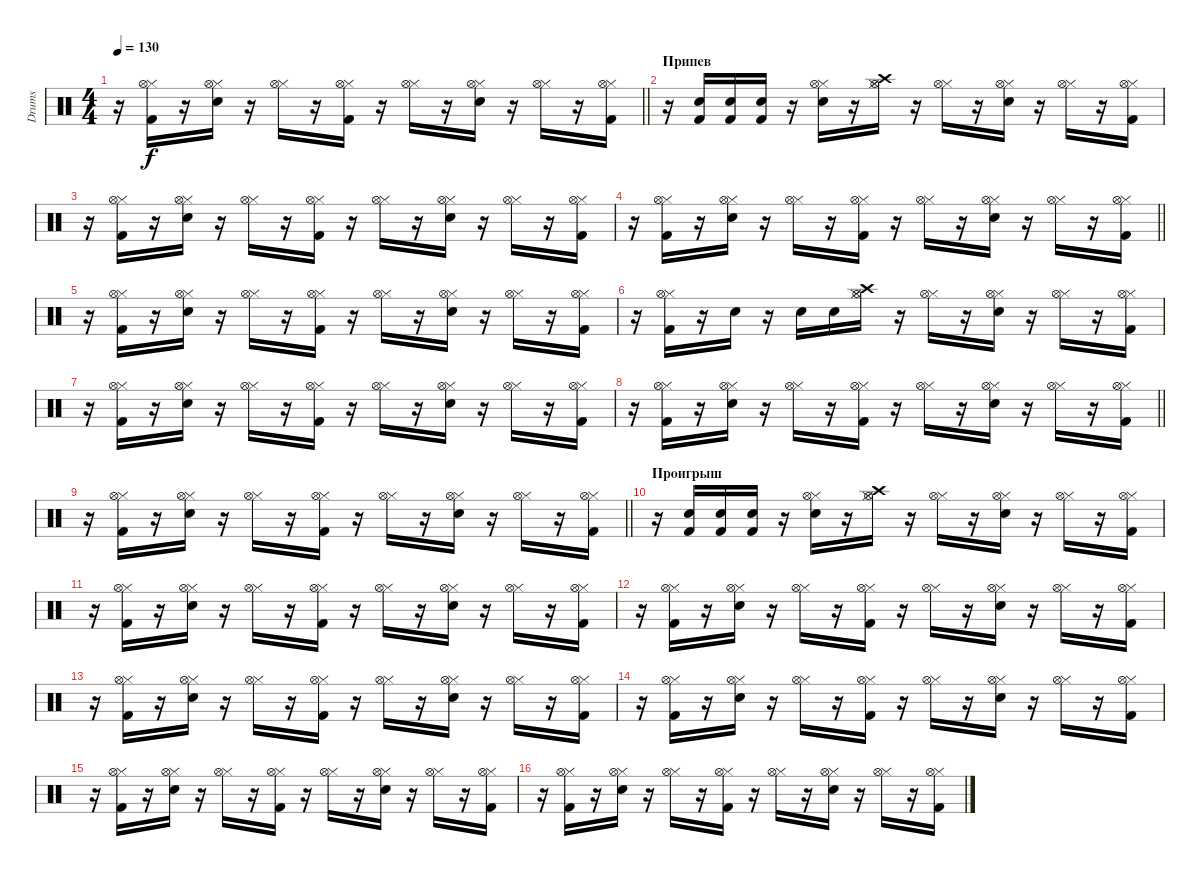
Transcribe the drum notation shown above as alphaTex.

\track ("Drums" "Drums") {instrument percussion}
\staff {score}
\articulation defaults
\ts (4 4)
\tempo 130
\clef neutral
\barLineRight lightlight
\ks c
r.16{dy f} ("Kick (hit) 2" "Hi-Hat (closed)" "Hi-Hat (open)").16 r.16 ("Snare (hit) 2" "Hi-Hat (closed)" "Hi-Hat (open)").16 r.16 ("Hi-Hat (closed)" "Hi-Hat (open)").16 r.16 ("Kick (hit) 2" "Hi-Hat (closed)" "Hi-Hat (open)").16 r.16 ("Hi-Hat (closed)" "Hi-Hat (open)").16 r.16 ("Snare (hit) 2" "Hi-Hat (closed)" "Hi-Hat (open)").16 r.16 ("Hi-Hat (closed)" "Hi-Hat (open)").16 r.16 ("Kick (hit) 2" "Hi-Hat (closed)" "Hi-Hat (open)").16 |
\section ("" "Припев")
r.16 ("Snare (hit) 2" "Kick (hit) 2").16 ("Snare (hit) 2" "Kick (hit) 2").16 ("Snare (hit) 2" "Kick (hit) 2").16 r.16 ("Snare (hit) 2" "Hi-Hat (closed)" "Hi-Hat (open)").16 r.16 ("Crash high (hit)" "Hi-Hat (closed)" "Hi-Hat (open)").16 r.16 ("Hi-Hat (closed)" "Hi-Hat (open)").16 r.16 ("Snare (hit) 2" "Hi-Hat (closed)" "Hi-Hat (open)").16 r.16 ("Hi-Hat (closed)" "Hi-Hat (open)").16 r.16 ("Kick (hit) 2" "Hi-Hat (closed)" "Hi-Hat (open)").16 |
r.16 ("Kick (hit) 2" "Hi-Hat (closed)" "Hi-Hat (open)").16 r.16 ("Snare (hit) 2" "Hi-Hat (closed)" "Hi-Hat (open)").16 r.16 ("Hi-Hat (closed)" "Hi-Hat (open)").16 r.16 ("Kick (hit) 2" "Hi-Hat (closed)" "Hi-Hat (open)").16 r.16 ("Hi-Hat (closed)" "Hi-Hat (open)").16 r.16 ("Snare (hit) 2" "Hi-Hat (closed)" "Hi-Hat (open)").16 r.16 ("Hi-Hat (closed)" "Hi-Hat (open)").16 r.16 ("Kick (hit) 2" "Hi-Hat (closed)" "Hi-Hat (open)").16 |
\barLineRight lightlight
r.16 ("Kick (hit) 2" "Hi-Hat (closed)" "Hi-Hat (open)").16 r.16 ("Snare (hit) 2" "Hi-Hat (closed)" "Hi-Hat (open)").16 r.16 ("Hi-Hat (closed)" "Hi-Hat (open)").16 r.16 ("Kick (hit) 2" "Hi-Hat (closed)" "Hi-Hat (open)").16 r.16 ("Hi-Hat (closed)" "Hi-Hat (open)").16 r.16 ("Snare (hit) 2" "Hi-Hat (closed)" "Hi-Hat (open)").16 r.16 ("Hi-Hat (closed)" "Hi-Hat (open)").16 r.16 ("Kick (hit) 2" "Hi-Hat (closed)" "Hi-Hat (open)").16 |
r.16 ("Kick (hit) 2" "Hi-Hat (closed)" "Hi-Hat (open)").16 r.16 ("Snare (hit) 2" "Hi-Hat (closed)" "Hi-Hat (open)").16 r.16 ("Hi-Hat (closed)" "Hi-Hat (open)").16 r.16 ("Kick (hit) 2" "Hi-Hat (closed)" "Hi-Hat (open)").16 r.16 ("Hi-Hat (closed)" "Hi-Hat (open)").16 r.16 ("Snare (hit) 2" "Hi-Hat (closed)" "Hi-Hat (open)").16 r.16 ("Hi-Hat (closed)" "Hi-Hat (open)").16 r.16 ("Kick (hit) 2" "Hi-Hat (closed)" "Hi-Hat (open)").16 |
r.16 ("Kick (hit) 2" "Hi-Hat (closed)" "Hi-Hat (open)").16 r.16 "Snare (hit) 2".16 r.16 "Snare (hit) 2".16 "Snare (hit) 2".16 ("Crash high (hit)" "Hi-Hat (closed)" "Hi-Hat (open)").16 r.16 ("Hi-Hat (closed)" "Hi-Hat (open)").16 r.16 ("Snare (hit) 2" "Hi-Hat (closed)" "Hi-Hat (open)").16 r.16 ("Hi-Hat (closed)" "Hi-Hat (open)").16 r.16 ("Kick (hit) 2" "Hi-Hat (closed)" "Hi-Hat (open)").16 |
r.16 ("Kick (hit) 2" "Hi-Hat (closed)" "Hi-Hat (open)").16 r.16 ("Snare (hit) 2" "Hi-Hat (closed)" "Hi-Hat (open)").16 r.16 ("Hi-Hat (closed)" "Hi-Hat (open)").16 r.16 ("Kick (hit) 2" "Hi-Hat (closed)" "Hi-Hat (open)").16 r.16 ("Hi-Hat (closed)" "Hi-Hat (open)").16 r.16 ("Snare (hit) 2" "Hi-Hat (closed)" "Hi-Hat (open)").16 r.16 ("Hi-Hat (closed)" "Hi-Hat (open)").16 r.16 ("Kick (hit) 2" "Hi-Hat (closed)" "Hi-Hat (open)").16 |
\barLineRight lightlight
r.16 ("Kick (hit) 2" "Hi-Hat (closed)" "Hi-Hat (open)").16 r.16 ("Snare (hit) 2" "Hi-Hat (closed)" "Hi-Hat (open)").16 r.16 ("Hi-Hat (closed)" "Hi-Hat (open)").16 r.16 ("Kick (hit) 2" "Hi-Hat (closed)" "Hi-Hat (open)").16 r.16 ("Hi-Hat (closed)" "Hi-Hat (open)").16 r.16 ("Snare (hit) 2" "Hi-Hat (closed)" "Hi-Hat (open)").16 r.16 ("Hi-Hat (closed)" "Hi-Hat (open)").16 r.16 ("Kick (hit) 2" "Hi-Hat (closed)" "Hi-Hat (open)").16 |
\section ("" "")
\barLineRight lightlight
r.16 ("Kick (hit) 2" "Hi-Hat (closed)" "Hi-Hat (open)").16 r.16 ("Snare (hit) 2" "Hi-Hat (closed)" "Hi-Hat (open)").16 r.16 ("Hi-Hat (closed)" "Hi-Hat (open)").16 r.16 ("Kick (hit) 2" "Hi-Hat (closed)" "Hi-Hat (open)").16 r.16 ("Hi-Hat (closed)" "Hi-Hat (open)").16 r.16 ("Snare (hit) 2" "Hi-Hat (closed)" "Hi-Hat (open)").16 r.16 ("Hi-Hat (closed)" "Hi-Hat (open)").16 r.16 ("Kick (hit) 2" "Hi-Hat (closed)" "Hi-Hat (open)").16 |
\section ("" "Проигрыш")
r.16 ("Snare (hit) 2" "Kick (hit) 2").16 ("Snare (hit) 2" "Kick (hit) 2").16 ("Snare (hit) 2" "Kick (hit) 2").16 r.16 ("Snare (hit) 2" "Hi-Hat (closed)" "Hi-Hat (open)").16 r.16 ("Crash high (hit)" "Hi-Hat (closed)" "Hi-Hat (open)").16 r.16 ("Hi-Hat (closed)" "Hi-Hat (open)").16 r.16 ("Snare (hit) 2" "Hi-Hat (closed)" "Hi-Hat (open)").16 r.16 ("Hi-Hat (closed)" "Hi-Hat (open)").16 r.16 ("Kick (hit) 2" "Hi-Hat (closed)" "Hi-Hat (open)").16 |
r.16 ("Kick (hit) 2" "Hi-Hat (closed)" "Hi-Hat (open)").16 r.16 ("Snare (hit) 2" "Hi-Hat (closed)" "Hi-Hat (open)").16 r.16 ("Hi-Hat (closed)" "Hi-Hat (open)").16 r.16 ("Kick (hit) 2" "Hi-Hat (closed)" "Hi-Hat (open)").16 r.16 ("Hi-Hat (closed)" "Hi-Hat (open)").16 r.16 ("Snare (hit) 2" "Hi-Hat (closed)" "Hi-Hat (open)").16 r.16 ("Hi-Hat (closed)" "Hi-Hat (open)").16 r.16 ("Kick (hit) 2" "Hi-Hat (closed)" "Hi-Hat (open)").16 |
r.16 ("Kick (hit) 2" "Hi-Hat (closed)" "Hi-Hat (open)").16 r.16 ("Snare (hit) 2" "Hi-Hat (closed)" "Hi-Hat (open)").16 r.16 ("Hi-Hat (closed)" "Hi-Hat (open)").16 r.16 ("Kick (hit) 2" "Hi-Hat (closed)" "Hi-Hat (open)").16 r.16 ("Hi-Hat (closed)" "Hi-Hat (open)").16 r.16 ("Snare (hit) 2" "Hi-Hat (closed)" "Hi-Hat (open)").16 r.16 ("Hi-Hat (closed)" "Hi-Hat (open)").16 r.16 ("Kick (hit) 2" "Hi-Hat (closed)" "Hi-Hat (open)").16 |
r.16 ("Kick (hit) 2" "Hi-Hat (closed)" "Hi-Hat (open)").16 r.16 ("Snare (hit) 2" "Hi-Hat (closed)" "Hi-Hat (open)").16 r.16 ("Hi-Hat (closed)" "Hi-Hat (open)").16 r.16 ("Kick (hit) 2" "Hi-Hat (closed)" "Hi-Hat (open)").16 r.16 ("Hi-Hat (closed)" "Hi-Hat (open)").16 r.16 ("Snare (hit) 2" "Hi-Hat (closed)" "Hi-Hat (open)").16 r.16 ("Hi-Hat (closed)" "Hi-Hat (open)").16 r.16 ("Kick (hit) 2" "Hi-Hat (closed)" "Hi-Hat (open)").16 |
r.16 ("Kick (hit) 2" "Hi-Hat (closed)" "Hi-Hat (open)").16 r.16 ("Snare (hit) 2" "Hi-Hat (closed)" "Hi-Hat (open)").16 r.16 ("Hi-Hat (closed)" "Hi-Hat (open)").16 r.16 ("Kick (hit) 2" "Hi-Hat (closed)" "Hi-Hat (open)").16 r.16 ("Hi-Hat (closed)" "Hi-Hat (open)").16 r.16 ("Snare (hit) 2" "Hi-Hat (closed)" "Hi-Hat (open)").16 r.16 ("Hi-Hat (closed)" "Hi-Hat (open)").16 r.16 ("Kick (hit) 2" "Hi-Hat (closed)" "Hi-Hat (open)").16 |
r.16 ("Kick (hit) 2" "Hi-Hat (closed)" "Hi-Hat (open)").16 r.16 ("Snare (hit) 2" "Hi-Hat (closed)" "Hi-Hat (open)").16 r.16 ("Hi-Hat (closed)" "Hi-Hat (open)").16 r.16 ("Kick (hit) 2" "Hi-Hat (closed)" "Hi-Hat (open)").16 r.16 ("Hi-Hat (closed)" "Hi-Hat (open)").16 r.16 ("Snare (hit) 2" "Hi-Hat (closed)" "Hi-Hat (open)").16 r.16 ("Hi-Hat (closed)" "Hi-Hat (open)").16 r.16 ("Kick (hit) 2" "Hi-Hat (closed)" "Hi-Hat (open)").16 |
r.16 ("Kick (hit) 2" "Hi-Hat (closed)" "Hi-Hat (open)").16 r.16 ("Snare (hit) 2" "Hi-Hat (closed)" "Hi-Hat (open)").16 r.16 ("Hi-Hat (closed)" "Hi-Hat (open)").16 r.16 ("Kick (hit) 2" "Hi-Hat (closed)" "Hi-Hat (open)").16 r.16 ("Hi-Hat (closed)" "Hi-Hat (open)").16 r.16 ("Snare (hit) 2" "Hi-Hat (closed)" "Hi-Hat (open)").16 r.16 ("Hi-Hat (closed)" "Hi-Hat (open)").16 r.16 ("Kick (hit) 2" "Hi-Hat (closed)" "Hi-Hat (open)").16
